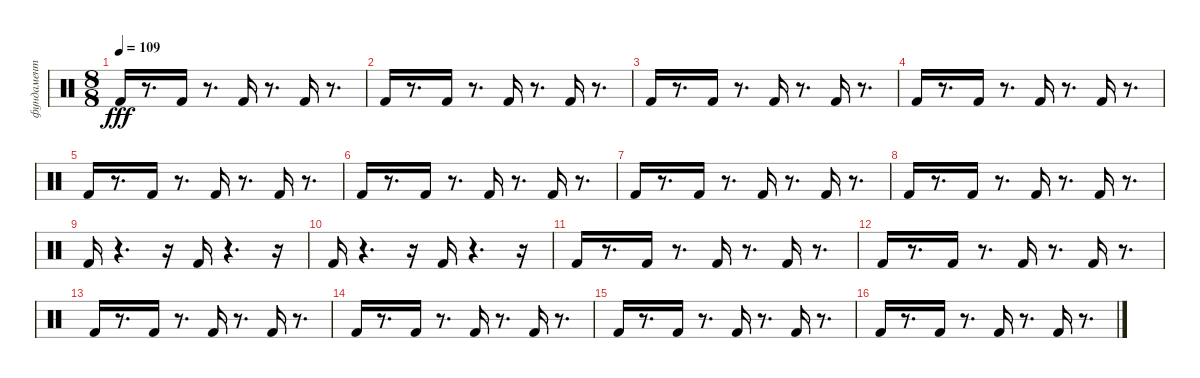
\track ("фундамент" "фундамент") {instrument percussion}
\staff {score}
\articulation defaults
\ts (8 8)
\tempo 109
\clef neutral
\ks c "Kick (hit) 2".16{dy fff}
r.8{d} "Kick (hit) 2".16 r.8{d} "Kick (hit) 2".16 r.8{d} "Kick (hit) 2".16 r.8{d} |
"Kick (hit) 2".16 r.8{d} "Kick (hit) 2".16 r.8{d} "Kick (hit) 2".16 r.8{d} "Kick (hit) 2".16 r.8{d} |
"Kick (hit) 2".16 r.8{d} "Kick (hit) 2".16 r.8{d} "Kick (hit) 2".16 r.8{d} "Kick (hit) 2".16 r.8{d} |
"Kick (hit) 2".16 r.8{d} "Kick (hit) 2".16 r.8{d} "Kick (hit) 2".16 r.8{d} "Kick (hit) 2".16 r.8{d} |
"Kick (hit) 2".16 r.8{d} "Kick (hit) 2".16 r.8{d} "Kick (hit) 2".16 r.8{d} "Kick (hit) 2".16 r.8{d} |
"Kick (hit) 2".16 r.8{d} "Kick (hit) 2".16 r.8{d} "Kick (hit) 2".16 r.8{d} "Kick (hit) 2".16 r.8{d} |
"Kick (hit) 2".16 r.8{d} "Kick (hit) 2".16 r.8{d} "Kick (hit) 2".16 r.8{d} "Kick (hit) 2".16 r.8{d} |
"Kick (hit) 2".16 r.8{d} "Kick (hit) 2".16 r.8{d} "Kick (hit) 2".16 r.8{d} "Kick (hit) 2".16 r.8{d} |
"Kick (hit) 2".16 r.4{d} r.16 "Kick (hit) 2".16 r.4{d} r.16 |
"Kick (hit) 2".16 r.4{d} r.16 "Kick (hit) 2".16 r.4{d} r.16 |
"Kick (hit) 2".16 r.8{d} "Kick (hit) 2".16 r.8{d} "Kick (hit) 2".16 r.8{d} "Kick (hit) 2".16 r.8{d} |
"Kick (hit) 2".16 r.8{d} "Kick (hit) 2".16 r.8{d} "Kick (hit) 2".16 r.8{d} "Kick (hit) 2".16 r.8{d} |
"Kick (hit) 2".16 r.8{d} "Kick (hit) 2".16 r.8{d} "Kick (hit) 2".16 r.8{d} "Kick (hit) 2".16 r.8{d} |
"Kick (hit) 2".16 r.8{d} "Kick (hit) 2".16 r.8{d} "Kick (hit) 2".16 r.8{d} "Kick (hit) 2".16 r.8{d} |
"Kick (hit) 2".16 r.8{d} "Kick (hit) 2".16 r.8{d} "Kick (hit) 2".16 r.8{d} "Kick (hit) 2".16 r.8{d} |
"Kick (hit) 2".16 r.8{d} "Kick (hit) 2".16 r.8{d} "Kick (hit) 2".16 r.8{d} "Kick (hit) 2".16 r.8{d}
